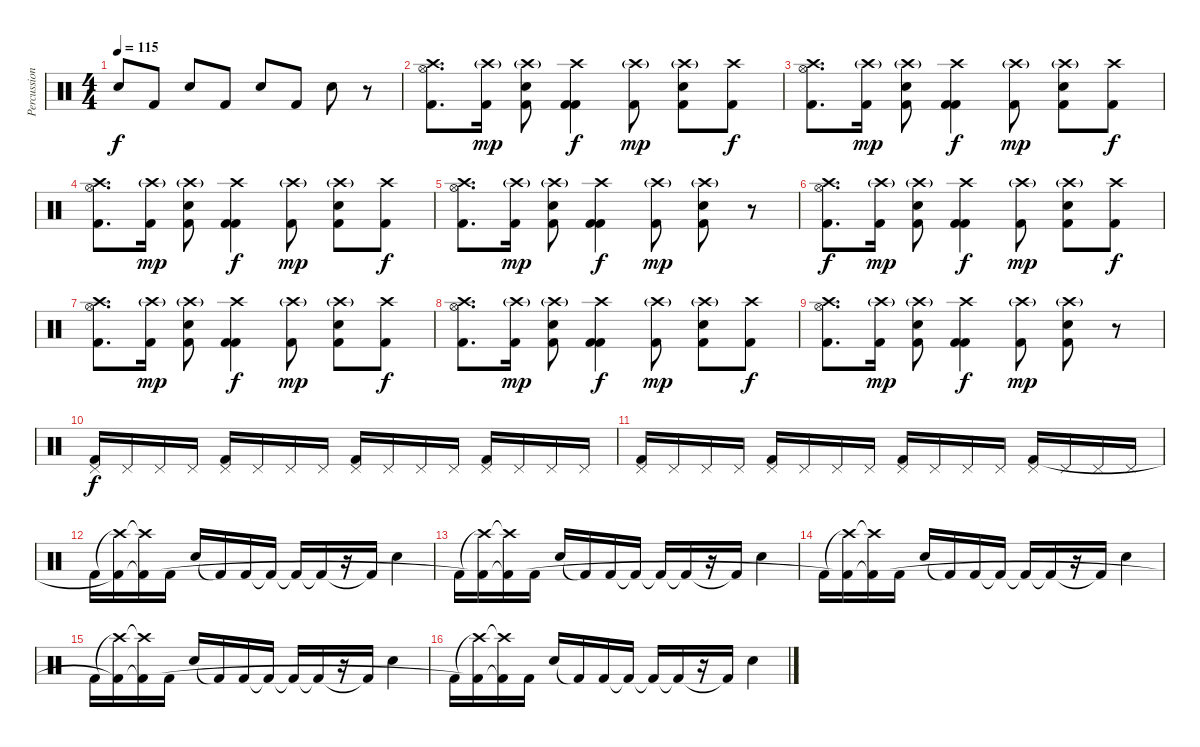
\track ("Percussion" "Percussion") {instrument percussion}
\staff {score}
\articulation defaults
\ts (4 4)
\tempo 115
\clef neutral
\ks c "Snare (hit) 2".8{dy f} "Kick (hit) 2".8 "Snare (hit) 2".8 "Kick (hit) 2".8 "Snare (hit) 2".8 "Kick (hit) 2".8 "Snare (hit) 2".8
r.8 |
("Crash high (hit)" "Hi-Hat (open)" "Kick (hit) 2").8{d} ("Crash high (hit)"{g} "Kick (hit) 2").16{dy mp} ("Crash high (hit)"{g} "Snare (hit) 2" "Kick (hit) 2").8 ("Crash high (hit)" "Kick (hit) 2" "Kick (hit) 2").4{dy f} ("Crash high (hit)"{g} "Kick (hit) 2").8{dy mp} ("Crash high (hit)"{g} "Snare (hit) 2" "Kick (hit) 2").8 ("Crash high (hit)" "Kick (hit) 2").8{dy f} |
("Crash high (hit)" "Hi-Hat (open)" "Kick (hit) 2").8{d} ("Crash high (hit)"{g} "Kick (hit) 2").16{dy mp} ("Crash high (hit)"{g} "Snare (hit) 2" "Kick (hit) 2").8 ("Crash high (hit)" "Kick (hit) 2" "Kick (hit) 2").4{dy f} ("Crash high (hit)"{g} "Kick (hit) 2").8{dy mp} ("Crash high (hit)"{g} "Snare (hit) 2" "Kick (hit) 2").8 ("Crash high (hit)" "Kick (hit) 2").8{dy f} |
("Crash high (hit)" "Hi-Hat (open)" "Kick (hit) 2").8{d} ("Crash high (hit)"{g} "Kick (hit) 2").16{dy mp} ("Crash high (hit)"{g} "Snare (hit) 2" "Kick (hit) 2").8 ("Crash high (hit)" "Kick (hit) 2" "Kick (hit) 2").4{dy f} ("Crash high (hit)"{g} "Kick (hit) 2").8{dy mp} ("Crash high (hit)"{g} "Snare (hit) 2" "Kick (hit) 2").8 ("Crash high (hit)" "Kick (hit) 2").8{dy f} |
("Crash high (hit)" "Hi-Hat (open)" "Kick (hit) 2").8{d} ("Crash high (hit)"{g} "Kick (hit) 2").16{dy mp} ("Crash high (hit)"{g} "Snare (hit) 2" "Kick (hit) 2").8 ("Crash high (hit)" "Kick (hit) 2" "Kick (hit) 2").4{dy f} ("Crash high (hit)"{g} "Kick (hit) 2").8{dy mp} ("Crash high (hit)"{g} "Snare (hit) 2" "Kick (hit) 2").8 r.8 |
("Crash high (hit)" "Hi-Hat (open)" "Kick (hit) 2").8{d dy f} ("Crash high (hit)"{g} "Kick (hit) 2").16{dy mp} ("Crash high (hit)"{g} "Snare (hit) 2" "Kick (hit) 2").8 ("Crash high (hit)" "Kick (hit) 2" "Kick (hit) 2").4{dy f} ("Crash high (hit)"{g} "Kick (hit) 2").8{dy mp} ("Crash high (hit)"{g} "Snare (hit) 2" "Kick (hit) 2").8 ("Crash high (hit)" "Kick (hit) 2").8{dy f} |
("Crash high (hit)" "Hi-Hat (open)" "Kick (hit) 2").8{d} ("Crash high (hit)"{g} "Kick (hit) 2").16{dy mp} ("Crash high (hit)"{g} "Snare (hit) 2" "Kick (hit) 2").8 ("Crash high (hit)" "Kick (hit) 2" "Kick (hit) 2").4{dy f} ("Crash high (hit)"{g} "Kick (hit) 2").8{dy mp} ("Crash high (hit)"{g} "Snare (hit) 2" "Kick (hit) 2").8 ("Crash high (hit)" "Kick (hit) 2").8{dy f} |
("Crash high (hit)" "Hi-Hat (open)" "Kick (hit) 2").8{d} ("Crash high (hit)"{g} "Kick (hit) 2").16{dy mp} ("Crash high (hit)"{g} "Snare (hit) 2" "Kick (hit) 2").8 ("Crash high (hit)" "Kick (hit) 2" "Kick (hit) 2").4{dy f} ("Crash high (hit)"{g} "Kick (hit) 2").8{dy mp} ("Crash high (hit)"{g} "Snare (hit) 2" "Kick (hit) 2").8 ("Crash high (hit)" "Kick (hit) 2").8{dy f} |
("Crash high (hit)" "Hi-Hat (open)" "Kick (hit) 2").8{d} ("Crash high (hit)"{g} "Kick (hit) 2").16{dy mp} ("Crash high (hit)"{g} "Snare (hit) 2" "Kick (hit) 2").8 ("Crash high (hit)" "Kick (hit) 2" "Kick (hit) 2").4{dy f} ("Crash high (hit)"{g} "Kick (hit) 2").8{dy mp} ("Crash high (hit)"{g} "Snare (hit) 2" "Kick (hit) 2").8 r.8 |
("Pedal Hi-Hat (hit)" "Kick (hit) 2").16{dy f} "Pedal Hi-Hat (hit)".16 "Pedal Hi-Hat (hit)".16 "Pedal Hi-Hat (hit)".16 ("Pedal Hi-Hat (hit)" "Kick (hit) 2").16 "Pedal Hi-Hat (hit)".16 "Pedal Hi-Hat (hit)".16 "Pedal Hi-Hat (hit)".16 ("Pedal Hi-Hat (hit)" "Kick (hit) 2").16 "Pedal Hi-Hat (hit)".16 "Pedal Hi-Hat (hit)".16 "Pedal Hi-Hat (hit)".16 ("Pedal Hi-Hat (hit)" "Kick (hit) 2").16 "Pedal Hi-Hat (hit)".16 "Pedal Hi-Hat (hit)".16 "Pedal Hi-Hat (hit)".16 |
("Pedal Hi-Hat (hit)" "Kick (hit) 2").16 "Pedal Hi-Hat (hit)".16 "Pedal Hi-Hat (hit)".16 "Pedal Hi-Hat (hit)".16 ("Pedal Hi-Hat (hit)" "Kick (hit) 2").16 "Pedal Hi-Hat (hit)".16 "Pedal Hi-Hat (hit)".16 "Pedal Hi-Hat (hit)".16 ("Pedal Hi-Hat (hit)" "Kick (hit) 2").16 "Pedal Hi-Hat (hit)".16 "Pedal Hi-Hat (hit)".16 "Pedal Hi-Hat (hit)".16 ("Pedal Hi-Hat (hit)" "Kick (hit) 2").16 "Pedal Hi-Hat (hit)".16 "Pedal Hi-Hat (hit)".16 "Pedal Hi-Hat (hit)".16 |
"Kick (hit) 2".16 ("Crash high (hit)"{t} "Kick (hit) 2"{t}).16 ("Crash high (hit)"{t} "Kick (hit) 2"{t}).16 "Kick (hit) 2".16 "Snare (hit) 2".16 "Kick (hit) 2"{t}.16 "Kick (hit) 2".16 "Kick (hit) 2"{t}.16 "Kick (hit) 2"{t}.16 "Kick (hit) 2"{t}.16 r.16 "Kick (hit) 2"{t}.16 "Snare (hit) 2".4 |
"Kick (hit) 2".16 ("Crash high (hit)"{t} "Kick (hit) 2"{t}).16 ("Crash high (hit)"{t} "Kick (hit) 2"{t}).16 "Kick (hit) 2".16 "Snare (hit) 2".16 "Kick (hit) 2"{t}.16 "Kick (hit) 2".16 "Kick (hit) 2"{t}.16 "Kick (hit) 2"{t}.16 "Kick (hit) 2"{t}.16 r.16 "Kick (hit) 2"{t}.16 "Snare (hit) 2".4 |
"Kick (hit) 2".16 ("Crash high (hit)"{t} "Kick (hit) 2"{t}).16 ("Crash high (hit)"{t} "Kick (hit) 2"{t}).16 "Kick (hit) 2".16 "Snare (hit) 2".16 "Kick (hit) 2"{t}.16 "Kick (hit) 2".16 "Kick (hit) 2"{t}.16 "Kick (hit) 2"{t}.16 "Kick (hit) 2"{t}.16 r.16 "Kick (hit) 2"{t}.16 "Snare (hit) 2".4 |
"Kick (hit) 2".16 ("Crash high (hit)"{t} "Kick (hit) 2"{t}).16 ("Crash high (hit)"{t} "Kick (hit) 2"{t}).16 "Kick (hit) 2".16 "Snare (hit) 2".16 "Kick (hit) 2"{t}.16 "Kick (hit) 2".16 "Kick (hit) 2"{t}.16 "Kick (hit) 2"{t}.16 "Kick (hit) 2"{t}.16 r.16 "Kick (hit) 2"{t}.16 "Snare (hit) 2".4 |
"Kick (hit) 2".16 ("Crash high (hit)"{t} "Kick (hit) 2"{t}).16 ("Crash high (hit)"{t} "Kick (hit) 2"{t}).16 "Kick (hit) 2".16 "Snare (hit) 2".16 "Kick (hit) 2"{t}.16 "Kick (hit) 2".16 "Kick (hit) 2"{t}.16 "Kick (hit) 2"{t}.16 "Kick (hit) 2"{t}.16 r.16 "Kick (hit) 2"{t}.16 "Snare (hit) 2".4
